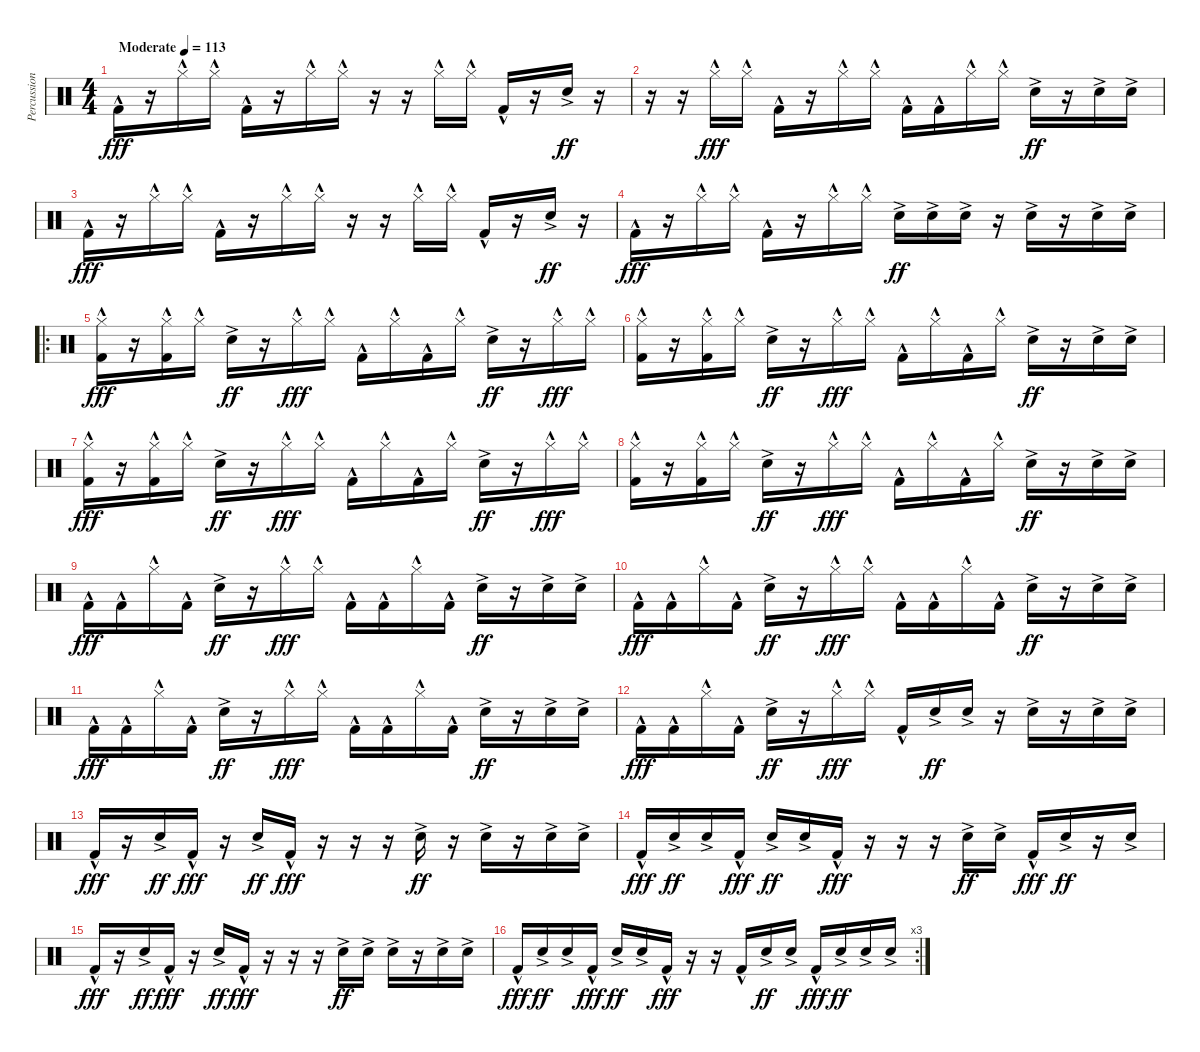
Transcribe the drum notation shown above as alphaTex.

\track ("Percussion" "Percussion") {instrument percussion}
\staff {score}
\articulation defaults
\ts (4 4)
\tempo (113 "Moderate")
\clef neutral
\ks c "Kick (hit) 2"{hac}.16{dy fff}
r.16 "Hi-Hat (closed)"{hac}.16 "Hi-Hat (closed)"{hac}.16 "Kick (hit) 2"{hac}.16 r.16 "Hi-Hat (closed)"{hac}.16 "Hi-Hat (closed)"{hac}.16 r.16 r.16 "Hi-Hat (closed)"{hac}.16 "Hi-Hat (closed)"{hac}.16 "Kick (hit) 2"{hac}.16 r.16 "Snare (hit) 2"{ac}.16{dy ff} r.16 |
r.16 r.16 "Hi-Hat (closed)"{hac}.16{dy fff} "Hi-Hat (closed)"{hac}.16 "Kick (hit) 2"{hac}.16 r.16 "Hi-Hat (closed)"{hac}.16 "Hi-Hat (closed)"{hac}.16 "Kick (hit) 2"{hac}.16 "Kick (hit) 2"{hac}.16 "Hi-Hat (closed)"{hac}.16 "Hi-Hat (closed)"{hac}.16 "Snare (hit) 2"{ac}.16{dy ff} r.16 "Snare (hit) 2"{ac}.16 "Snare (hit) 2"{ac}.16 |
"Kick (hit) 2"{hac}.16{dy fff} r.16 "Hi-Hat (closed)"{hac}.16 "Hi-Hat (closed)"{hac}.16 "Kick (hit) 2"{hac}.16 r.16 "Hi-Hat (closed)"{hac}.16 "Hi-Hat (closed)"{hac}.16 r.16 r.16 "Hi-Hat (closed)"{hac}.16 "Hi-Hat (closed)"{hac}.16 "Kick (hit) 2"{hac}.16 r.16 "Snare (hit) 2"{ac}.16{dy ff} r.16 |
"Kick (hit) 2"{hac}.16{dy fff} r.16 "Hi-Hat (closed)"{hac}.16 "Hi-Hat (closed)"{hac}.16 "Kick (hit) 2"{hac}.16 r.16 "Hi-Hat (closed)"{hac}.16 "Hi-Hat (closed)"{hac}.16 "Snare (hit) 2"{ac}.16{dy ff} "Snare (hit) 2"{ac}.16 "Snare (hit) 2"{ac}.16 r.16 "Snare (hit) 2"{ac}.16 r.16 "Snare (hit) 2"{ac}.16 "Snare (hit) 2"{ac}.16 |
\ro
("Hi-Hat (closed)"{hac} "Kick (hit) 2"{hac}).16{dy fff} r.16 ("Hi-Hat (closed)"{hac} "Kick (hit) 2"{hac}).16 "Hi-Hat (closed)"{hac}.16 "Snare (hit) 2"{ac}.16{dy ff} r.16 "Hi-Hat (closed)"{hac}.16{dy fff} "Hi-Hat (closed)"{hac}.16 "Kick (hit) 2"{hac}.16 "Hi-Hat (closed)"{hac}.16 "Kick (hit) 2"{hac}.16 "Hi-Hat (closed)"{hac}.16 "Snare (hit) 2"{ac}.16{dy ff} r.16 "Hi-Hat (closed)"{hac}.16{dy fff} "Hi-Hat (closed)"{hac}.16 |
("Hi-Hat (closed)"{hac} "Kick (hit) 2"{hac}).16 r.16 ("Hi-Hat (closed)"{hac} "Kick (hit) 2"{hac}).16 "Hi-Hat (closed)"{hac}.16 "Snare (hit) 2"{ac}.16{dy ff} r.16 "Hi-Hat (closed)"{hac}.16{dy fff} "Hi-Hat (closed)"{hac}.16 "Kick (hit) 2"{hac}.16 "Hi-Hat (closed)"{hac}.16 "Kick (hit) 2"{hac}.16 "Hi-Hat (closed)"{hac}.16 "Snare (hit) 2"{ac}.16{dy ff} r.16 "Snare (hit) 2"{ac}.16 "Snare (hit) 2"{ac}.16 |
("Hi-Hat (closed)"{hac} "Kick (hit) 2"{hac}).16{dy fff} r.16 ("Hi-Hat (closed)"{hac} "Kick (hit) 2"{hac}).16 "Hi-Hat (closed)"{hac}.16 "Snare (hit) 2"{ac}.16{dy ff} r.16 "Hi-Hat (closed)"{hac}.16{dy fff} "Hi-Hat (closed)"{hac}.16 "Kick (hit) 2"{hac}.16 "Hi-Hat (closed)"{hac}.16 "Kick (hit) 2"{hac}.16 "Hi-Hat (closed)"{hac}.16 "Snare (hit) 2"{ac}.16{dy ff} r.16 "Hi-Hat (closed)"{hac}.16{dy fff} "Hi-Hat (closed)"{hac}.16 |
("Hi-Hat (closed)"{hac} "Kick (hit) 2"{hac}).16 r.16 ("Hi-Hat (closed)"{hac} "Kick (hit) 2"{hac}).16 "Hi-Hat (closed)"{hac}.16 "Snare (hit) 2"{ac}.16{dy ff} r.16 "Hi-Hat (closed)"{hac}.16{dy fff} "Hi-Hat (closed)"{hac}.16 "Kick (hit) 2"{hac}.16 "Hi-Hat (closed)"{hac}.16 "Kick (hit) 2"{hac}.16 "Hi-Hat (closed)"{hac}.16 "Snare (hit) 2"{ac}.16{dy ff} r.16 "Snare (hit) 2"{ac}.16 "Snare (hit) 2"{ac}.16 |
"Kick (hit) 2"{hac}.16{dy fff} "Kick (hit) 2"{hac}.16 "Hi-Hat (closed)"{hac}.16 "Kick (hit) 2"{hac}.16 "Snare (hit) 2"{ac}.16{dy ff} r.16 "Hi-Hat (closed)"{hac}.16{dy fff} "Hi-Hat (closed)"{hac}.16 "Kick (hit) 2"{hac}.16 "Kick (hit) 2"{hac}.16 "Hi-Hat (closed)"{hac}.16 "Kick (hit) 2"{hac}.16 "Snare (hit) 2"{ac}.16{dy ff} r.16 "Snare (hit) 2"{ac}.16 "Snare (hit) 2"{ac}.16 |
"Kick (hit) 2"{hac}.16{dy fff} "Kick (hit) 2"{hac}.16 "Hi-Hat (closed)"{hac}.16 "Kick (hit) 2"{hac}.16 "Snare (hit) 2"{ac}.16{dy ff} r.16 "Hi-Hat (closed)"{hac}.16{dy fff} "Hi-Hat (closed)"{hac}.16 "Kick (hit) 2"{hac}.16 "Kick (hit) 2"{hac}.16 "Hi-Hat (closed)"{hac}.16 "Kick (hit) 2"{hac}.16 "Snare (hit) 2"{ac}.16{dy ff} r.16 "Snare (hit) 2"{ac}.16 "Snare (hit) 2"{ac}.16 |
"Kick (hit) 2"{hac}.16{dy fff} "Kick (hit) 2"{hac}.16 "Hi-Hat (closed)"{hac}.16 "Kick (hit) 2"{hac}.16 "Snare (hit) 2"{ac}.16{dy ff} r.16 "Hi-Hat (closed)"{hac}.16{dy fff} "Hi-Hat (closed)"{hac}.16 "Kick (hit) 2"{hac}.16 "Kick (hit) 2"{hac}.16 "Hi-Hat (closed)"{hac}.16 "Kick (hit) 2"{hac}.16 "Snare (hit) 2"{ac}.16{dy ff} r.16 "Snare (hit) 2"{ac}.16 "Snare (hit) 2"{ac}.16 |
"Kick (hit) 2"{hac}.16{dy fff} "Kick (hit) 2"{hac}.16 "Hi-Hat (closed)"{hac}.16 "Kick (hit) 2"{hac}.16 "Snare (hit) 2"{ac}.16{dy ff} r.16 "Hi-Hat (closed)"{hac}.16{dy fff} "Hi-Hat (closed)"{hac}.16 "Kick (hit) 2"{hac}.16 "Snare (hit) 2"{ac}.16{dy ff} "Snare (hit) 2"{ac}.16 r.16 "Snare (hit) 2"{ac}.16 r.16 "Snare (hit) 2"{ac}.16 "Snare (hit) 2"{ac}.16 |
"Kick (hit) 2"{hac}.16{dy fff} r.16 "Snare (hit) 2"{ac}.16{dy ff} "Kick (hit) 2"{hac}.16{dy fff} r.16 "Snare (hit) 2"{ac}.16{dy ff} "Kick (hit) 2"{hac}.16{dy fff} r.16 r.16 r.16 "Snare (hit) 2"{ac}.16{dy ff} r.16 "Snare (hit) 2"{ac}.16 r.16 "Snare (hit) 2"{ac}.16 "Snare (hit) 2"{ac}.16 |
"Kick (hit) 2"{hac}.16{dy fff} "Snare (hit) 2"{ac}.16{dy ff} "Snare (hit) 2"{ac}.16 "Kick (hit) 2"{hac}.16{dy fff} "Snare (hit) 2"{ac}.16{dy ff} "Snare (hit) 2"{ac}.16 "Kick (hit) 2"{hac}.16{dy fff} r.16 r.16 r.16 "Snare (hit) 2"{ac}.16{dy ff} "Snare (hit) 2"{ac}.16 "Kick (hit) 2"{hac}.16{dy fff} "Snare (hit) 2"{ac}.16{dy ff} r.16 "Snare (hit) 2"{ac}.16 |
"Kick (hit) 2"{hac}.16{dy fff} r.16 "Snare (hit) 2"{ac}.16{dy ff} "Kick (hit) 2"{hac}.16{dy fff} r.16 "Snare (hit) 2"{ac}.16{dy ff} "Kick (hit) 2"{hac}.16{dy fff} r.16 r.16 r.16 "Snare (hit) 2"{ac}.16{dy ff} "Snare (hit) 2"{ac}.16 "Snare (hit) 2"{ac}.16 r.16 "Snare (hit) 2"{ac}.16 "Snare (hit) 2"{ac}.16 |
\rc 3 "Kick (hit) 2"{hac}.16{dy fff} "Snare (hit) 2"{ac}.16{dy ff} "Snare (hit) 2"{ac}.16 "Kick (hit) 2"{hac}.16{dy fff} "Snare (hit) 2"{ac}.16{dy ff} "Snare (hit) 2"{ac}.16 "Kick (hit) 2"{hac}.16{dy fff}
r.16 r.16 "Kick (hit) 2"{hac}.16 "Snare (hit) 2"{ac}.16{dy ff} "Snare (hit) 2"{ac}.16 "Kick (hit) 2"{hac}.16{dy fff} "Snare (hit) 2"{ac}.16{dy ff} "Snare (hit) 2"{ac}.16 "Snare (hit) 2"{ac}.16
